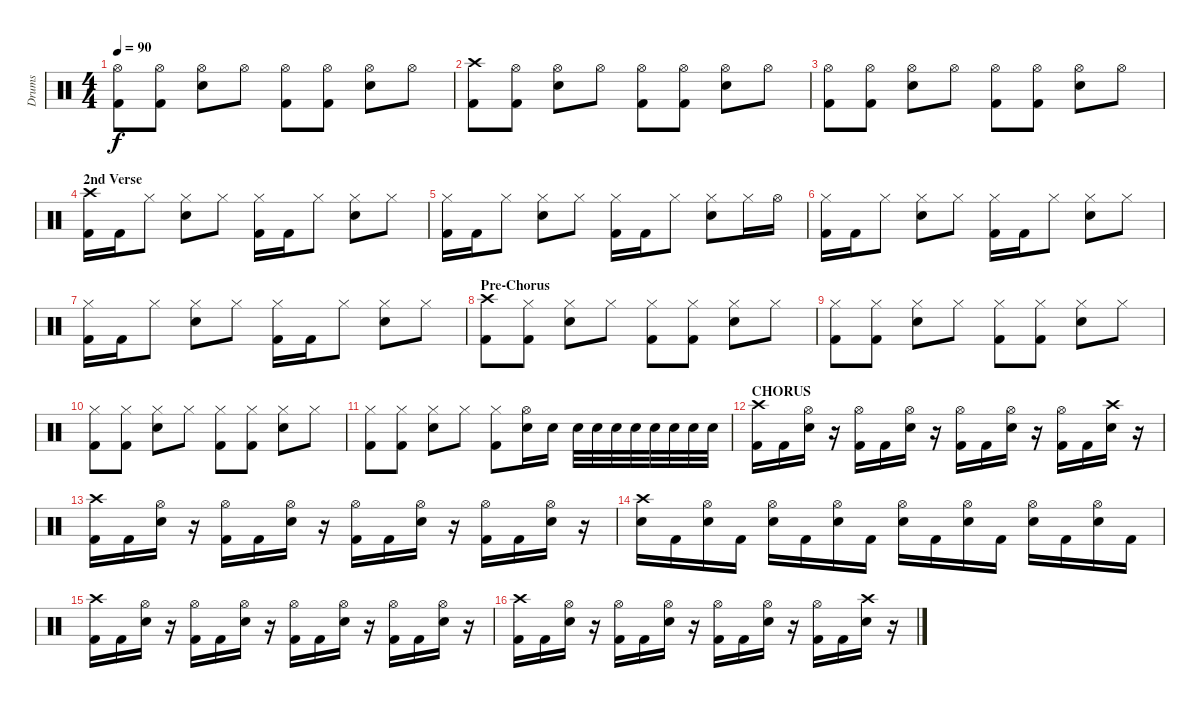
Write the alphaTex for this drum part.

\track ("Drums" "Drums") {instrument percussion}
\staff {score}
\articulation defaults
\ts (4 4)
\tempo 90
\clef neutral
\ks c
("Hi-Hat (open)" "Kick (hit) 2").8{dy f} ("Hi-Hat (open)" "Kick (hit) 2").8 ("Hi-Hat (open)" "Electric Snare (hit)").8 "Hi-Hat (open)".8 ("Hi-Hat (open)" "Kick (hit) 2").8 ("Hi-Hat (open)" "Kick (hit) 2").8 ("Hi-Hat (open)" "Electric Snare (hit)").8 "Hi-Hat (open)".8 |
("Crash high (hit)" "Kick (hit) 2").8 ("Hi-Hat (open)" "Kick (hit) 2").8 ("Hi-Hat (open)" "Electric Snare (hit)").8 "Hi-Hat (open)".8 ("Hi-Hat (open)" "Kick (hit) 2").8 ("Hi-Hat (open)" "Kick (hit) 2").8 ("Hi-Hat (open)" "Electric Snare (hit)").8 "Hi-Hat (open)".8 |
("Hi-Hat (open)" "Kick (hit) 2").8 ("Hi-Hat (open)" "Kick (hit) 2").8 ("Hi-Hat (open)" "Electric Snare (hit)").8 "Hi-Hat (open)".8 ("Hi-Hat (open)" "Kick (hit) 2").8 ("Hi-Hat (open)" "Kick (hit) 2").8 ("Hi-Hat (open)" "Electric Snare (hit)").8 "Hi-Hat (open)".8 |
\section ("" "2nd Verse")
("Crash high (hit)" "Kick (hit) 2").16 "Kick (hit) 2".16 "Hi-Hat (closed)".8 ("Hi-Hat (closed)" "Electric Snare (hit)").8 "Hi-Hat (closed)".8 ("Hi-Hat (closed)" "Kick (hit) 2").16 "Kick (hit) 2".16 "Hi-Hat (closed)".8 ("Hi-Hat (closed)" "Electric Snare (hit)").8 "Hi-Hat (closed)".8 |
("Hi-Hat (closed)" "Kick (hit) 2").16 "Kick (hit) 2".16 "Hi-Hat (closed)".8 ("Hi-Hat (closed)" "Electric Snare (hit)").8 "Hi-Hat (closed)".8 ("Hi-Hat (closed)" "Kick (hit) 2").16 "Kick (hit) 2".16 "Hi-Hat (closed)".8 ("Hi-Hat (closed)" "Electric Snare (hit)").8 "Hi-Hat (closed)".16 "Hi-Hat (open)".16 |
("Hi-Hat (closed)" "Kick (hit) 2").16 "Kick (hit) 2".16 "Hi-Hat (closed)".8 ("Hi-Hat (closed)" "Electric Snare (hit)").8 "Hi-Hat (closed)".8 ("Hi-Hat (closed)" "Kick (hit) 2").16 "Kick (hit) 2".16 "Hi-Hat (closed)".8 ("Hi-Hat (closed)" "Electric Snare (hit)").8 "Hi-Hat (closed)".8 |
("Hi-Hat (closed)" "Kick (hit) 2").16 "Kick (hit) 2".16 "Hi-Hat (closed)".8 ("Hi-Hat (closed)" "Electric Snare (hit)").8 "Hi-Hat (closed)".8 ("Hi-Hat (closed)" "Kick (hit) 2").16 "Kick (hit) 2".16 "Hi-Hat (closed)".8 ("Hi-Hat (closed)" "Electric Snare (hit)").8 "Hi-Hat (closed)".8 |
\section ("" "Pre-Chorus")
("Crash high (hit)" "Kick (hit) 2").8 ("Hi-Hat (closed)" "Kick (hit) 2").8 ("Hi-Hat (closed)" "Electric Snare (hit)").8 "Hi-Hat (closed)".8 ("Hi-Hat (closed)" "Kick (hit) 2").8 ("Hi-Hat (closed)" "Kick (hit) 2").8 ("Hi-Hat (closed)" "Electric Snare (hit)").8 "Hi-Hat (closed)".8 |
("Hi-Hat (closed)" "Kick (hit) 2").8 ("Hi-Hat (closed)" "Kick (hit) 2").8 ("Hi-Hat (closed)" "Electric Snare (hit)").8 "Hi-Hat (closed)".8 ("Hi-Hat (closed)" "Kick (hit) 2").8 ("Hi-Hat (closed)" "Kick (hit) 2").8 ("Hi-Hat (closed)" "Electric Snare (hit)").8 "Hi-Hat (closed)".8 |
("Hi-Hat (closed)" "Kick (hit) 2").8 ("Hi-Hat (closed)" "Kick (hit) 2").8 ("Hi-Hat (closed)" "Electric Snare (hit)").8 "Hi-Hat (closed)".8 ("Hi-Hat (closed)" "Kick (hit) 2").8 ("Hi-Hat (closed)" "Kick (hit) 2").8 ("Hi-Hat (closed)" "Electric Snare (hit)").8 "Hi-Hat (closed)".8 |
("Hi-Hat (closed)" "Kick (hit) 2").8 ("Hi-Hat (closed)" "Kick (hit) 2").8 ("Hi-Hat (closed)" "Electric Snare (hit)").8 "Hi-Hat (closed)".8 ("Hi-Hat (closed)" "Kick (hit) 2").8 ("Hi-Hat (open)" "Electric Snare (hit)").16 "Electric Snare (hit)".16 "Electric Snare (hit)".32 "Electric Snare (hit)".32 "Electric Snare (hit)".32 "Electric Snare (hit)".32 "Electric Snare (hit)".32 "Electric Snare (hit)".32 "Electric Snare (hit)".32 "Electric Snare (hit)".32 |
\section ("" "CHORUS")
("Crash high (hit)" "Kick (hit) 2").16 "Kick (hit) 2".16 ("Hi-Hat (open)" "Electric Snare (hit)").16 r.16 ("Hi-Hat (open)" "Kick (hit) 2").16 "Kick (hit) 2".16 ("Hi-Hat (open)" "Electric Snare (hit)").16 r.16 ("Hi-Hat (open)" "Kick (hit) 2").16 "Kick (hit) 2".16 ("Hi-Hat (open)" "Electric Snare (hit)").16 r.16 ("Hi-Hat (open)" "Kick (hit) 2").16 "Kick (hit) 2".16 ("Crash high (hit)" "Electric Snare (hit)").16 r.16 |
("Crash high (hit)" "Kick (hit) 2").16 "Kick (hit) 2".16 ("Hi-Hat (open)" "Electric Snare (hit)").16 r.16 ("Hi-Hat (open)" "Kick (hit) 2").16 "Kick (hit) 2".16 ("Hi-Hat (open)" "Electric Snare (hit)").16 r.16 ("Hi-Hat (open)" "Kick (hit) 2").16 "Kick (hit) 2".16 ("Hi-Hat (open)" "Electric Snare (hit)").16 r.16 ("Hi-Hat (open)" "Kick (hit) 2").16 "Kick (hit) 2".16 ("Hi-Hat (open)" "Electric Snare (hit)").16 r.16 |
("Crash high (hit)" "Electric Snare (hit)").16 "Kick (hit) 2".16 ("Hi-Hat (open)" "Electric Snare (hit)").16 "Kick (hit) 2".16 ("Hi-Hat (open)" "Electric Snare (hit)").16 "Kick (hit) 2".16 ("Hi-Hat (open)" "Electric Snare (hit)").16 "Kick (hit) 2".16 ("Hi-Hat (open)" "Electric Snare (hit)").16 "Kick (hit) 2".16 ("Hi-Hat (open)" "Electric Snare (hit)").16 "Kick (hit) 2".16 ("Hi-Hat (open)" "Electric Snare (hit)").16 "Kick (hit) 2".16 ("Hi-Hat (open)" "Electric Snare (hit)").16 "Kick (hit) 2".16 |
("Crash high (hit)" "Kick (hit) 2").16 "Kick (hit) 2".16 ("Hi-Hat (open)" "Electric Snare (hit)").16 r.16 ("Hi-Hat (open)" "Kick (hit) 2").16 "Kick (hit) 2".16 ("Hi-Hat (open)" "Electric Snare (hit)").16 r.16 ("Hi-Hat (open)" "Kick (hit) 2").16 "Kick (hit) 2".16 ("Hi-Hat (open)" "Electric Snare (hit)").16 r.16 ("Hi-Hat (open)" "Kick (hit) 2").16 "Kick (hit) 2".16 ("Hi-Hat (open)" "Electric Snare (hit)").16 r.16 |
("Crash high (hit)" "Kick (hit) 2").16 "Kick (hit) 2".16 ("Hi-Hat (open)" "Electric Snare (hit)").16 r.16 ("Hi-Hat (open)" "Kick (hit) 2").16 "Kick (hit) 2".16 ("Hi-Hat (open)" "Electric Snare (hit)").16 r.16 ("Hi-Hat (open)" "Kick (hit) 2").16 "Kick (hit) 2".16 ("Hi-Hat (open)" "Electric Snare (hit)").16 r.16 ("Hi-Hat (open)" "Kick (hit) 2").16 "Kick (hit) 2".16 ("Crash high (hit)" "Electric Snare (hit)").16 r.16
